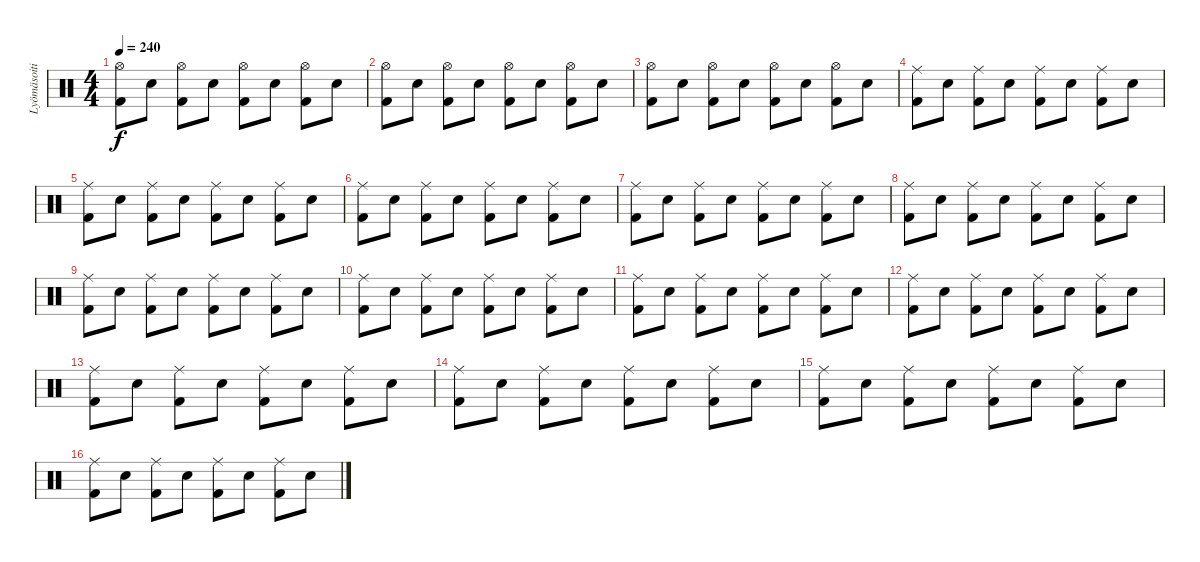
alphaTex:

\track ("Lyömäsoitin" "Lyömäsoiti") {instrument percussion}
\staff {score}
\articulation defaults
\ts (4 4)
\tempo 240
\clef neutral
\ks c
("Hi-Hat (open)" "Kick (hit) 2").8{dy f} "Snare (hit) 2".8 ("Hi-Hat (open)" "Kick (hit) 2").8 "Snare (hit) 2".8 ("Hi-Hat (open)" "Kick (hit) 2").8 "Snare (hit) 2".8 ("Hi-Hat (open)" "Kick (hit) 2").8 "Snare (hit) 2".8 |
("Hi-Hat (open)" "Kick (hit) 2").8 "Snare (hit) 2".8 ("Hi-Hat (open)" "Kick (hit) 2").8 "Snare (hit) 2".8 ("Hi-Hat (open)" "Kick (hit) 2").8 "Snare (hit) 2".8 ("Hi-Hat (open)" "Kick (hit) 2").8 "Snare (hit) 2".8 |
("Hi-Hat (open)" "Kick (hit) 2").8 "Snare (hit) 2".8 ("Hi-Hat (open)" "Kick (hit) 2").8 "Snare (hit) 2".8 ("Hi-Hat (open)" "Kick (hit) 2").8 "Snare (hit) 2".8 ("Hi-Hat (open)" "Kick (hit) 2").8 "Snare (hit) 2".8 |
("Ride (middle)" "Kick (hit) 2").8 "Snare (hit) 2".8 ("Ride (middle)" "Kick (hit) 2").8 "Snare (hit) 2".8 ("Ride (middle)" "Kick (hit) 2").8 "Snare (hit) 2".8 ("Ride (middle)" "Kick (hit) 2").8 "Snare (hit) 2".8 |
("Ride (middle)" "Kick (hit) 2").8 "Snare (hit) 2".8 ("Ride (middle)" "Kick (hit) 2").8 "Snare (hit) 2".8 ("Ride (middle)" "Kick (hit) 2").8 "Snare (hit) 2".8 ("Ride (middle)" "Kick (hit) 2").8 "Snare (hit) 2".8 |
("Ride (middle)" "Kick (hit) 2").8 "Snare (hit) 2".8 ("Ride (middle)" "Kick (hit) 2").8 "Snare (hit) 2".8 ("Ride (middle)" "Kick (hit) 2").8 "Snare (hit) 2".8 ("Ride (middle)" "Kick (hit) 2").8 "Snare (hit) 2".8 |
("Ride (middle)" "Kick (hit) 2").8 "Snare (hit) 2".8 ("Ride (middle)" "Kick (hit) 2").8 "Snare (hit) 2".8 ("Ride (middle)" "Kick (hit) 2").8 "Snare (hit) 2".8 ("Ride (middle)" "Kick (hit) 2").8 "Snare (hit) 2".8 |
("Ride (middle)" "Kick (hit) 2").8 "Snare (hit) 2".8 ("Ride (middle)" "Kick (hit) 2").8 "Snare (hit) 2".8 ("Ride (middle)" "Kick (hit) 2").8 "Snare (hit) 2".8 ("Ride (middle)" "Kick (hit) 2").8 "Snare (hit) 2".8 |
("Ride (middle)" "Kick (hit) 2").8 "Snare (hit) 2".8 ("Ride (middle)" "Kick (hit) 2").8 "Snare (hit) 2".8 ("Ride (middle)" "Kick (hit) 2").8 "Snare (hit) 2".8 ("Ride (middle)" "Kick (hit) 2").8 "Snare (hit) 2".8 |
("Ride (middle)" "Kick (hit) 2").8 "Snare (hit) 2".8 ("Ride (middle)" "Kick (hit) 2").8 "Snare (hit) 2".8 ("Ride (middle)" "Kick (hit) 2").8 "Snare (hit) 2".8 ("Ride (middle)" "Kick (hit) 2").8 "Snare (hit) 2".8 |
("Ride (middle)" "Kick (hit) 2").8 "Snare (hit) 2".8 ("Ride (middle)" "Kick (hit) 2").8 "Snare (hit) 2".8 ("Ride (middle)" "Kick (hit) 2").8 "Snare (hit) 2".8 ("Ride (middle)" "Kick (hit) 2").8 "Snare (hit) 2".8 |
("Ride (middle)" "Kick (hit) 2").8 "Snare (hit) 2".8 ("Ride (middle)" "Kick (hit) 2").8 "Snare (hit) 2".8 ("Ride (middle)" "Kick (hit) 2").8 "Snare (hit) 2".8 ("Ride (middle)" "Kick (hit) 2").8 "Snare (hit) 2".8 |
("Ride (middle)" "Kick (hit) 2").8 "Snare (hit) 2".8 ("Ride (middle)" "Kick (hit) 2").8 "Snare (hit) 2".8 ("Ride (middle)" "Kick (hit) 2").8 "Snare (hit) 2".8 ("Ride (middle)" "Kick (hit) 2").8 "Snare (hit) 2".8 |
("Ride (middle)" "Kick (hit) 2").8 "Snare (hit) 2".8 ("Ride (middle)" "Kick (hit) 2").8 "Snare (hit) 2".8 ("Ride (middle)" "Kick (hit) 2").8 "Snare (hit) 2".8 ("Ride (middle)" "Kick (hit) 2").8 "Snare (hit) 2".8 |
("Ride (middle)" "Kick (hit) 2").8 "Snare (hit) 2".8 ("Ride (middle)" "Kick (hit) 2").8 "Snare (hit) 2".8 ("Ride (middle)" "Kick (hit) 2").8 "Snare (hit) 2".8 ("Ride (middle)" "Kick (hit) 2").8 "Snare (hit) 2".8 |
("Ride (middle)" "Kick (hit) 2").8 "Snare (hit) 2".8 ("Ride (middle)" "Kick (hit) 2").8 "Snare (hit) 2".8 ("Ride (middle)" "Kick (hit) 2").8 "Snare (hit) 2".8 ("Ride (middle)" "Kick (hit) 2").8 "Snare (hit) 2".8
